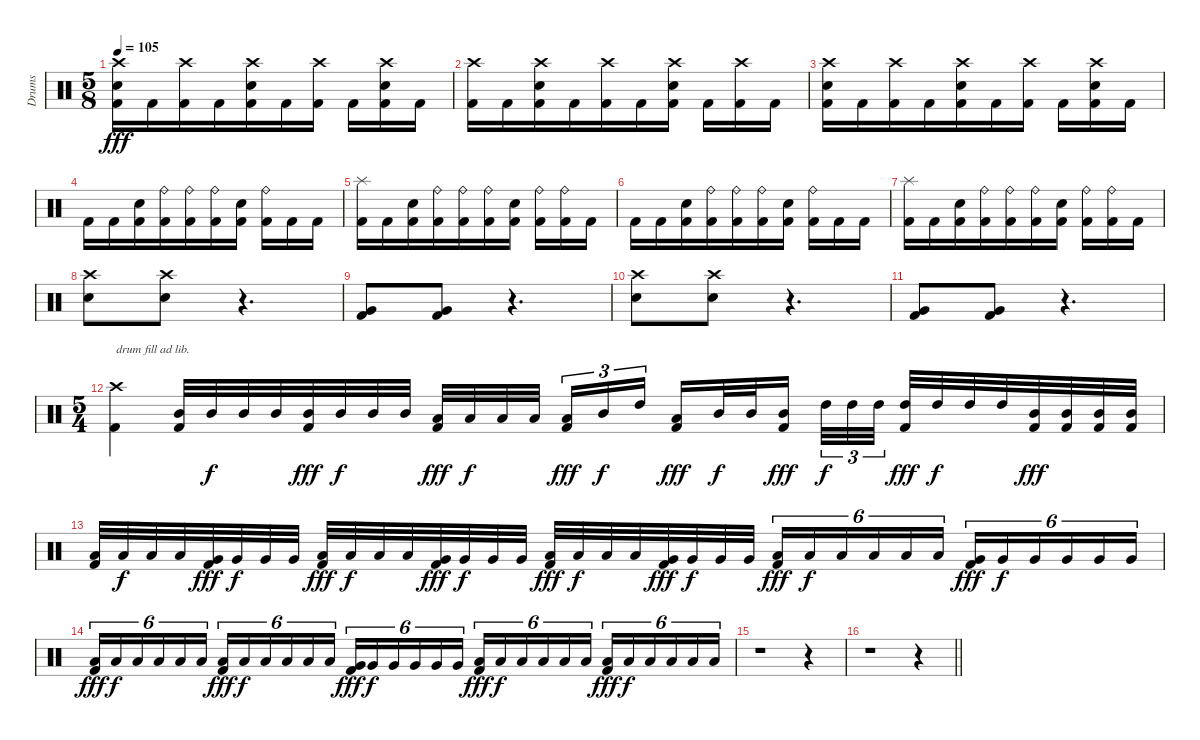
\track ("Drums" "Drums") {instrument percussion}
\staff {score}
\articulation defaults
\ts (5 8)
\tempo 105
\clef neutral
\ks aminor
("Crash high (hit)" "Snare (hit) 2" "Kick (hit) 2").16{dy fff} "Kick (hit) 2".16{beam merge} ("Crash high (hit)" "Kick (hit) 2").16 "Kick (hit) 2".16 ("Crash high (hit)" "Snare (hit) 2" "Kick (hit) 2").16 "Kick (hit) 2".16{beam merge} ("Crash high (hit)" "Kick (hit) 2").16{beam split} "Kick (hit) 2".16{beam merge} ("Crash high (hit)" "Snare (hit) 2" "Kick (hit) 2").16 "Kick (hit) 2".16 |
("Crash high (hit)" "Kick (hit) 2").16 "Kick (hit) 2".16{beam merge} ("Crash high (hit)" "Snare (hit) 2" "Kick (hit) 2").16 "Kick (hit) 2".16 ("Crash high (hit)" "Kick (hit) 2").16 "Kick (hit) 2".16{beam merge} ("Crash high (hit)" "Snare (hit) 2" "Kick (hit) 2").16{beam split} "Kick (hit) 2".16{beam merge} ("Crash high (hit)" "Kick (hit) 2").16 "Kick (hit) 2".16 |
("Crash high (hit)" "Snare (hit) 2" "Kick (hit) 2").16 "Kick (hit) 2".16{beam merge} ("Crash high (hit)" "Kick (hit) 2").16 "Kick (hit) 2".16 ("Crash high (hit)" "Snare (hit) 2" "Kick (hit) 2").16 "Kick (hit) 2".16{beam merge} ("Crash high (hit)" "Kick (hit) 2").16{beam split} "Kick (hit) 2".16{beam merge} ("Crash high (hit)" "Snare (hit) 2" "Kick (hit) 2").16 "Kick (hit) 2".16 |
"Kick (hit) 2".16 "Kick (hit) 2".16{beam merge} ("Snare (hit) 2" "Kick (hit) 2").16 ("Ride (bell)" "Kick (hit) 2").16 ("Ride (bell)" "Kick (hit) 2").16 ("Ride (bell)" "Kick (hit) 2").16{beam merge} ("Snare (hit) 2" "Kick (hit) 2").16{beam split} ("Ride (bell)" "Kick (hit) 2").16{beam merge} "Kick (hit) 2".16 "Kick (hit) 2".16 |
("Splash (hit)" "Kick (hit) 2").16 "Kick (hit) 2".16{beam merge} ("Snare (hit) 2" "Kick (hit) 2").16 ("Ride (bell)" "Kick (hit) 2").16 ("Ride (bell)" "Kick (hit) 2").16 ("Ride (bell)" "Kick (hit) 2").16{beam merge} ("Snare (hit) 2" "Kick (hit) 2").16{beam split} ("Ride (bell)" "Kick (hit) 2").16{beam merge} ("Ride (bell)" "Kick (hit) 2").16 "Kick (hit) 2".16 |
"Kick (hit) 2".16 "Kick (hit) 2".16{beam merge} ("Snare (hit) 2" "Kick (hit) 2").16 ("Ride (bell)" "Kick (hit) 2").16 ("Ride (bell)" "Kick (hit) 2").16 ("Ride (bell)" "Kick (hit) 2").16{beam merge} ("Snare (hit) 2" "Kick (hit) 2").16{beam split} ("Ride (bell)" "Kick (hit) 2").16{beam merge} "Kick (hit) 2".16 "Kick (hit) 2".16 |
("Splash (hit)" "Kick (hit) 2").16 "Kick (hit) 2".16{beam merge} ("Snare (hit) 2" "Kick (hit) 2").16 ("Ride (bell)" "Kick (hit) 2").16 ("Ride (bell)" "Kick (hit) 2").16 ("Ride (bell)" "Kick (hit) 2").16{beam merge} ("Snare (hit) 2" "Kick (hit) 2").16{beam split} ("Ride (bell)" "Kick (hit) 2").16{beam merge} ("Ride (bell)" "Kick (hit) 2").16 "Kick (hit) 2".16 |
("Crash high (hit)" "Snare (hit) 2").8 ("Crash high (hit)" "Snare (hit) 2").8 r.4{d} |
("Very Low Tom (hit)" "Kick (hit) 2").8 ("Very Low Tom (hit)" "Kick (hit) 2").8 r.4{d} |
("Crash high (hit)" "Snare (hit) 2").8 ("Crash high (hit)" "Snare (hit) 2").8 r.4{d} |
("Very Low Tom (hit)" "Kick (hit) 2").8 ("Very Low Tom (hit)" "Kick (hit) 2").8 r.4{d} |
\ts (5 4)
("Crash high (hit)" "Kick (hit) 2").4{txt "drum fill ad lib." volume 0} ("Mid Tom (hit)" "Kick (hit) 2").32 "Mid Tom (hit)".32{dy f} "Mid Tom (hit)".32 "Mid Tom (hit)".32 ("Mid Tom (hit)" "Kick (hit) 2").32{dy fff} "Mid Tom (hit)".32{dy f} "Mid Tom (hit)".32 "Mid Tom (hit)".32 ("Low Tom (hit)" "Kick (hit) 2").32{dy fff} "Low Tom (hit)".32{dy f} "Low Tom (hit)".32 "Low Tom (hit)".32{beam splitsecondary} ("Low Tom (hit)" "Kick (hit) 2").16{tu (3 2) dy fff} "Mid Tom (hit)".16{tu (3 2) dy f} "High Tom (hit)".16{tu (3 2)} ("Low Tom (hit)" "Kick (hit) 2").16{dy fff} "Mid Tom (hit)".32{dy f} "Mid Tom (hit)".32 ("Mid Tom (hit)" "Kick (hit) 2").16{dy fff beam splitsecondary} "High Tom (hit)".32{tu (3 2) dy f} "High Tom (hit)".32{tu (3 2)} "High Tom (hit)".32{tu (3 2)} ("High Tom (hit)" "Kick (hit) 2").32{dy fff} "High Tom (hit)".32{dy f} "High Tom (hit)".32 "High Tom (hit)".32 ("Mid Tom (hit)" "Kick (hit) 2").32{dy fff} ("Mid Tom (hit)" "Kick (hit) 2").32 ("Mid Tom (hit)" "Kick (hit) 2").32 ("Mid Tom (hit)" "Kick (hit) 2").32 |
("Low Tom (hit)" "Kick (hit) 2").32 "Low Tom (hit)".32{dy f} "Low Tom (hit)".32 "Low Tom (hit)".32 ("Very Low Tom (hit)" "Kick (hit) 2").32{dy fff} "Very Low Tom (hit)".32{dy f} "Very Low Tom (hit)".32 "Very Low Tom (hit)".32 ("Low Floor Tom (hit)" "Kick (hit) 2").32{dy fff} "Low Floor Tom (hit)".32{dy f} "Low Floor Tom (hit)".32 "Low Floor Tom (hit)".32 ("Very Low Tom (hit)" "Kick (hit) 2").32{dy fff} "Very Low Tom (hit)".32{dy f} "Very Low Tom (hit)".32 "Very Low Tom (hit)".32 ("Low Tom (hit)" "Kick (hit) 2").32{dy fff} "Low Tom (hit)".32{dy f} "Low Tom (hit)".32 "Low Tom (hit)".32 ("Very Low Tom (hit)" "Kick (hit) 2").32{dy fff} "Very Low Tom (hit)".32{dy f} "Very Low Tom (hit)".32 "Very Low Tom (hit)".32 ("Low Tom (hit)" "Kick (hit) 2").16{tu (6 4) dy fff} "Low Tom (hit)".16{tu (6 4) dy f} "Low Tom (hit)".16{tu (6 4)} "Low Tom (hit)".16{tu (6 4)} "Low Tom (hit)".16{tu (6 4)} "Low Tom (hit)".16{tu (6 4)} ("Very Low Tom (hit)" "Kick (hit) 2").16{tu (6 4) dy fff} "Very Low Tom (hit)".16{tu (6 4) dy f} "Very Low Tom (hit)".16{tu (6 4)} "Very Low Tom (hit)".16{tu (6 4)} "Very Low Tom (hit)".16{tu (6 4)} "Very Low Tom (hit)".16{tu (6 4)} |
("Low Floor Tom (hit)" "Kick (hit) 2").16{tu (6 4) dy fff} "Low Floor Tom (hit)".16{tu (6 4) dy f} "Low Floor Tom (hit)".16{tu (6 4)} "Low Floor Tom (hit)".16{tu (6 4)} "Low Floor Tom (hit)".16{tu (6 4)} "Low Floor Tom (hit)".16{tu (6 4)} ("Low Tom (hit)" "Kick (hit) 2").16{tu (6 4) dy fff} "Low Tom (hit)".16{tu (6 4) dy f} "Low Tom (hit)".16{tu (6 4)} "Low Tom (hit)".16{tu (6 4)} "Low Tom (hit)".16{tu (6 4)} "Low Tom (hit)".16{tu (6 4)} ("Very Low Tom (hit)" "Kick (hit) 2").16{tu (6 4) dy fff} "Very Low Tom (hit)".16{tu (6 4) dy f} "Very Low Tom (hit)".16{tu (6 4)} "Very Low Tom (hit)".16{tu (6 4)} "Very Low Tom (hit)".16{tu (6 4)} "Very Low Tom (hit)".16{tu (6 4)} ("Low Floor Tom (hit)" "Kick (hit) 2").16{tu (6 4) dy fff} "Low Floor Tom (hit)".16{tu (6 4) dy f} "Low Floor Tom (hit)".16{tu (6 4)} "Low Floor Tom (hit)".16{tu (6 4)} "Low Floor Tom (hit)".16{tu (6 4)} "Low Floor Tom (hit)".16{tu (6 4)} ("Low Tom (hit)" "Kick (hit) 2").16{tu (6 4) dy fff} "Low Tom (hit)".16{tu (6 4) dy f} "Low Tom (hit)".16{tu (6 4)} "Low Tom (hit)".16{tu (6 4)} "Low Tom (hit)".16{tu (6 4)} "Low Tom (hit)".16{tu (6 4)} |
r.1 r.4 |
\barLineRight lightlight
r.1{volume 16} r.4
